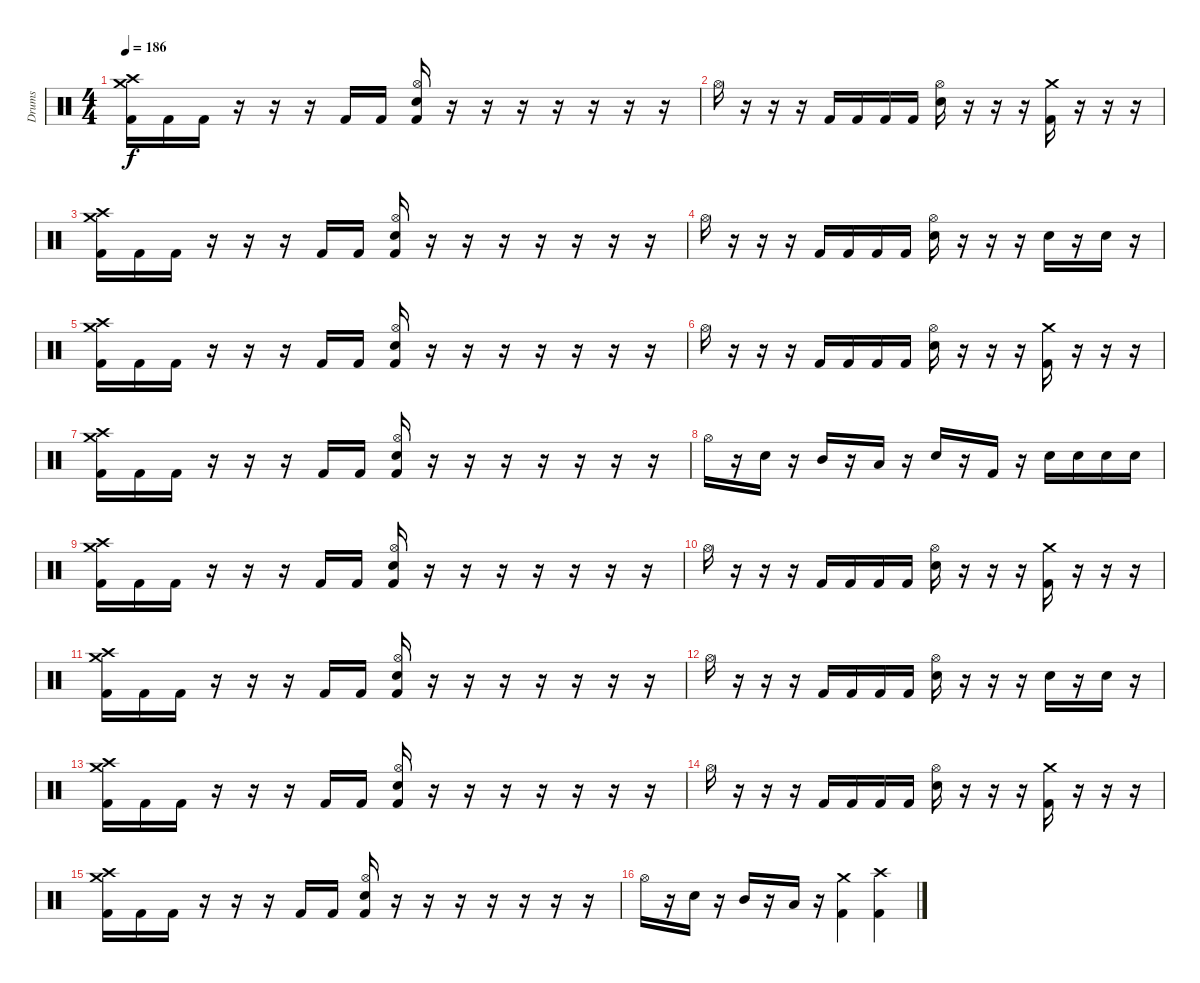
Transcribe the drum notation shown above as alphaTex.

\track ("Drums" "Drums") {instrument percussion}
\staff {score}
\articulation defaults
\ts (4 4)
\tempo 186
\clef neutral
\ks c
("Crash high (hit)" "Crash medium (hit)" "Kick (hit) 2").16{dy f} "Kick (hit) 2".16 "Kick (hit) 2".16 r.16 r.16 r.16 "Kick (hit) 2".16 "Kick (hit) 2".16 ("Hi-Hat (open)" "Snare (hit) 2" "Kick (hit) 2").16 r.16 r.16 r.16 r.16 r.16 r.16 r.16 |
"Hi-Hat (open)".16 r.16 r.16 r.16 "Kick (hit) 2".16 "Kick (hit) 2".16 "Kick (hit) 2".16 "Kick (hit) 2".16 ("Hi-Hat (open)" "Snare (hit) 2").16 r.16 r.16 r.16 ("Crash medium (hit)" "Kick (hit) 2").16 r.16 r.16 r.16 |
("Crash high (hit)" "Crash medium (hit)" "Kick (hit) 2").16 "Kick (hit) 2".16 "Kick (hit) 2".16 r.16 r.16 r.16 "Kick (hit) 2".16 "Kick (hit) 2".16 ("Hi-Hat (open)" "Snare (hit) 2" "Kick (hit) 2").16 r.16 r.16 r.16 r.16 r.16 r.16 r.16 |
"Hi-Hat (open)".16 r.16 r.16 r.16 "Kick (hit) 2".16 "Kick (hit) 2".16 "Kick (hit) 2".16 "Kick (hit) 2".16 ("Hi-Hat (open)" "Snare (hit) 2").16 r.16 r.16 r.16 "Snare (hit) 2".16 r.16 "Snare (hit) 2".16 r.16 |
("Crash high (hit)" "Crash medium (hit)" "Kick (hit) 2").16 "Kick (hit) 2".16 "Kick (hit) 2".16 r.16 r.16 r.16 "Kick (hit) 2".16 "Kick (hit) 2".16 ("Hi-Hat (open)" "Snare (hit) 2" "Kick (hit) 2").16 r.16 r.16 r.16 r.16 r.16 r.16 r.16 |
"Hi-Hat (open)".16 r.16 r.16 r.16 "Kick (hit) 2".16 "Kick (hit) 2".16 "Kick (hit) 2".16 "Kick (hit) 2".16 ("Hi-Hat (open)" "Snare (hit) 2").16 r.16 r.16 r.16 ("Crash medium (hit)" "Kick (hit) 2").16 r.16 r.16 r.16 |
("Crash high (hit)" "Crash medium (hit)" "Kick (hit) 2").16 "Kick (hit) 2".16 "Kick (hit) 2".16 r.16 r.16 r.16 "Kick (hit) 2".16 "Kick (hit) 2".16 ("Hi-Hat (open)" "Snare (hit) 2" "Kick (hit) 2").16 r.16 r.16 r.16 r.16 r.16 r.16 r.16 |
"Hi-Hat (open)".16 r.16 "Snare (hit) 2".16 r.16 "Mid Tom (hit)".16 r.16 "Low Tom (hit)".16 r.16 "Snare (hit) 2".16 r.16 "Kick (hit) 2".16 r.16 "Snare (hit) 2".16 "Snare (hit) 2".16 "Snare (hit) 2".16 "Snare (hit) 2".16 |
("Crash high (hit)" "Crash medium (hit)" "Kick (hit) 2").16 "Kick (hit) 2".16 "Kick (hit) 2".16 r.16 r.16 r.16 "Kick (hit) 2".16 "Kick (hit) 2".16 ("Hi-Hat (open)" "Snare (hit) 2" "Kick (hit) 2").16 r.16 r.16 r.16 r.16 r.16 r.16 r.16 |
"Hi-Hat (open)".16 r.16 r.16 r.16 "Kick (hit) 2".16 "Kick (hit) 2".16 "Kick (hit) 2".16 "Kick (hit) 2".16 ("Hi-Hat (open)" "Snare (hit) 2").16 r.16 r.16 r.16 ("Crash medium (hit)" "Kick (hit) 2").16 r.16 r.16 r.16 |
("Crash high (hit)" "Crash medium (hit)" "Kick (hit) 2").16 "Kick (hit) 2".16 "Kick (hit) 2".16 r.16 r.16 r.16 "Kick (hit) 2".16 "Kick (hit) 2".16 ("Hi-Hat (open)" "Snare (hit) 2" "Kick (hit) 2").16 r.16 r.16 r.16 r.16 r.16 r.16 r.16 |
"Hi-Hat (open)".16 r.16 r.16 r.16 "Kick (hit) 2".16 "Kick (hit) 2".16 "Kick (hit) 2".16 "Kick (hit) 2".16 ("Hi-Hat (open)" "Snare (hit) 2").16 r.16 r.16 r.16 "Snare (hit) 2".16 r.16 "Snare (hit) 2".16 r.16 |
("Crash high (hit)" "Crash medium (hit)" "Kick (hit) 2").16 "Kick (hit) 2".16 "Kick (hit) 2".16 r.16 r.16 r.16 "Kick (hit) 2".16 "Kick (hit) 2".16 ("Hi-Hat (open)" "Snare (hit) 2" "Kick (hit) 2").16 r.16 r.16 r.16 r.16 r.16 r.16 r.16 |
"Hi-Hat (open)".16 r.16 r.16 r.16 "Kick (hit) 2".16 "Kick (hit) 2".16 "Kick (hit) 2".16 "Kick (hit) 2".16 ("Hi-Hat (open)" "Snare (hit) 2").16 r.16 r.16 r.16 ("Crash medium (hit)" "Kick (hit) 2").16 r.16 r.16 r.16 |
("Crash high (hit)" "Crash medium (hit)" "Kick (hit) 2").16 "Kick (hit) 2".16 "Kick (hit) 2".16 r.16 r.16 r.16 "Kick (hit) 2".16 "Kick (hit) 2".16 ("Hi-Hat (open)" "Snare (hit) 2" "Kick (hit) 2").16 r.16 r.16 r.16 r.16 r.16 r.16 r.16 |
"Hi-Hat (open)".16 r.16 "Snare (hit) 2".16 r.16 "Mid Tom (hit)".16 r.16 "Low Tom (hit)".16 r.16 ("Crash medium (hit)" "Kick (hit) 2").4 ("Crash high (hit)" "Kick (hit) 2").4
